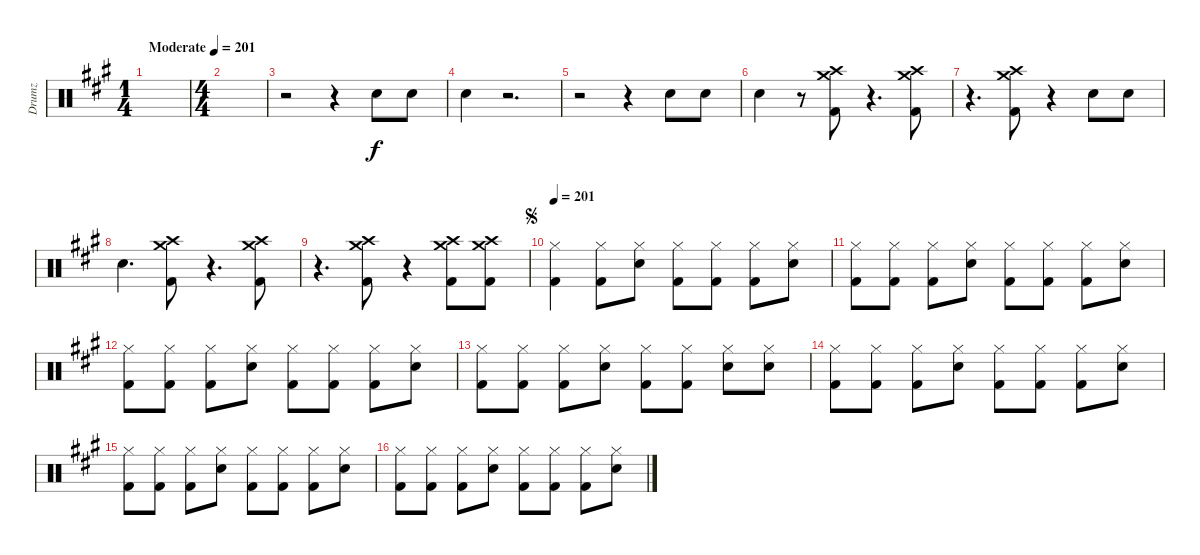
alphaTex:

\track ("Drumz" "Drumz") {instrument percussion}
\staff {score}
\articulation defaults
\ts (1 4)
\tempo (201 "Moderate")
\clef neutral
\ks a
|
\ts (4 4)
|
r.2 r.4 "Snare (hit) 2".8 "Snare (hit) 2".8 |
"Snare (hit) 2".4 r.2{d} |
r.2 r.4 "Snare (hit) 2".8 "Snare (hit) 2".8 |
"Snare (hit) 2".4 r.8 ("Kick (hit) 2" "Crash high (hit)" "Crash medium (hit)").8 r.4{d} ("Kick (hit) 2" "Crash high (hit)" "Crash medium (hit)").8 |
r.4{d} ("Kick (hit) 2" "Crash high (hit)" "Crash medium (hit)").8 r.4 "Snare (hit) 2".8 "Snare (hit) 2".8 |
"Snare (hit) 2".4{d} ("Kick (hit) 2" "Crash high (hit)" "Crash medium (hit)").8 r.4{d} ("Kick (hit) 2" "Crash high (hit)" "Crash medium (hit)").8 |
r.4{d} ("Kick (hit) 2" "Crash high (hit)" "Crash medium (hit)").8 r.4 ("Kick (hit) 2" "Crash high (hit)" "Crash medium (hit)").8 ("Kick (hit) 2" "Crash high (hit)" "Crash medium (hit)").8 |
\jump segno
\tempo 201
("Hi-Hat (closed)" "Kick (hit) 2").4 ("Hi-Hat (closed)" "Kick (hit) 2").8 ("Hi-Hat (closed)" "Snare (hit) 2").8 ("Hi-Hat (closed)" "Kick (hit) 2").8 ("Hi-Hat (closed)" "Kick (hit) 2").8 ("Hi-Hat (closed)" "Kick (hit) 2").8 ("Hi-Hat (closed)" "Snare (hit) 2").8 |
("Hi-Hat (closed)" "Kick (hit) 2").8 ("Hi-Hat (closed)" "Kick (hit) 2").8 ("Hi-Hat (closed)" "Kick (hit) 2").8 ("Hi-Hat (closed)" "Snare (hit) 2").8 ("Hi-Hat (closed)" "Kick (hit) 2").8 ("Hi-Hat (closed)" "Kick (hit) 2").8 ("Hi-Hat (closed)" "Kick (hit) 2").8 ("Hi-Hat (closed)" "Snare (hit) 2").8 |
("Hi-Hat (closed)" "Kick (hit) 2").8 ("Hi-Hat (closed)" "Kick (hit) 2").8 ("Hi-Hat (closed)" "Kick (hit) 2").8 ("Hi-Hat (closed)" "Snare (hit) 2").8 ("Hi-Hat (closed)" "Kick (hit) 2").8 ("Hi-Hat (closed)" "Kick (hit) 2").8 ("Hi-Hat (closed)" "Kick (hit) 2").8 ("Hi-Hat (closed)" "Snare (hit) 2").8 |
("Hi-Hat (closed)" "Kick (hit) 2").8 ("Hi-Hat (closed)" "Kick (hit) 2").8 ("Hi-Hat (closed)" "Kick (hit) 2").8 ("Hi-Hat (closed)" "Snare (hit) 2").8 ("Hi-Hat (closed)" "Kick (hit) 2").8 ("Hi-Hat (closed)" "Kick (hit) 2").8 ("Hi-Hat (closed)" "Snare (hit) 2").8 ("Hi-Hat (closed)" "Snare (hit) 2").8 |
("Hi-Hat (closed)" "Kick (hit) 2").8 ("Hi-Hat (closed)" "Kick (hit) 2").8 ("Hi-Hat (closed)" "Kick (hit) 2").8 ("Hi-Hat (closed)" "Snare (hit) 2").8 ("Hi-Hat (closed)" "Kick (hit) 2").8 ("Hi-Hat (closed)" "Kick (hit) 2").8 ("Hi-Hat (closed)" "Kick (hit) 2").8 ("Hi-Hat (closed)" "Snare (hit) 2").8 |
("Hi-Hat (closed)" "Kick (hit) 2").8 ("Hi-Hat (closed)" "Kick (hit) 2").8 ("Hi-Hat (closed)" "Kick (hit) 2").8 ("Hi-Hat (closed)" "Snare (hit) 2").8 ("Hi-Hat (closed)" "Kick (hit) 2").8 ("Hi-Hat (closed)" "Kick (hit) 2").8 ("Hi-Hat (closed)" "Kick (hit) 2").8 ("Hi-Hat (closed)" "Snare (hit) 2").8 |
("Hi-Hat (closed)" "Kick (hit) 2").8 ("Hi-Hat (closed)" "Kick (hit) 2").8 ("Hi-Hat (closed)" "Kick (hit) 2").8 ("Hi-Hat (closed)" "Snare (hit) 2").8 ("Hi-Hat (closed)" "Kick (hit) 2").8 ("Hi-Hat (closed)" "Kick (hit) 2").8 ("Hi-Hat (closed)" "Kick (hit) 2").8 ("Hi-Hat (closed)" "Snare (hit) 2").8
